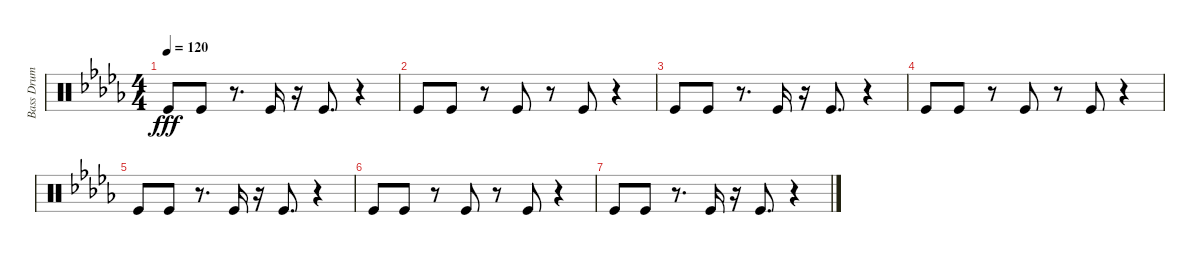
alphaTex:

\track ("Bass Drum" "Bass Drum") {instrument percussion}
\staff {score}
\articulation defaults
\ts (4 4)
\tempo 120
\clef neutral
\ks db "Kick (hit)".8{dy fff} "Kick (hit)".8
r.8{d} "Kick (hit)".16 r.16 "Kick (hit)".8{d} r.4 |
"Kick (hit)".8 "Kick (hit)".8 r.8 "Kick (hit)".8 r.8 "Kick (hit)".8 r.4 |
"Kick (hit)".8 "Kick (hit)".8 r.8{d} "Kick (hit)".16 r.16 "Kick (hit)".8{d} r.4 |
"Kick (hit)".8 "Kick (hit)".8 r.8 "Kick (hit)".8 r.8 "Kick (hit)".8 r.4 |
"Kick (hit)".8 "Kick (hit)".8 r.8{d} "Kick (hit)".16 r.16 "Kick (hit)".8{d} r.4 |
"Kick (hit)".8 "Kick (hit)".8 r.8 "Kick (hit)".8 r.8 "Kick (hit)".8 r.4 |
"Kick (hit)".8 "Kick (hit)".8 r.8{d} "Kick (hit)".16 r.16 "Kick (hit)".8{d} r.4
